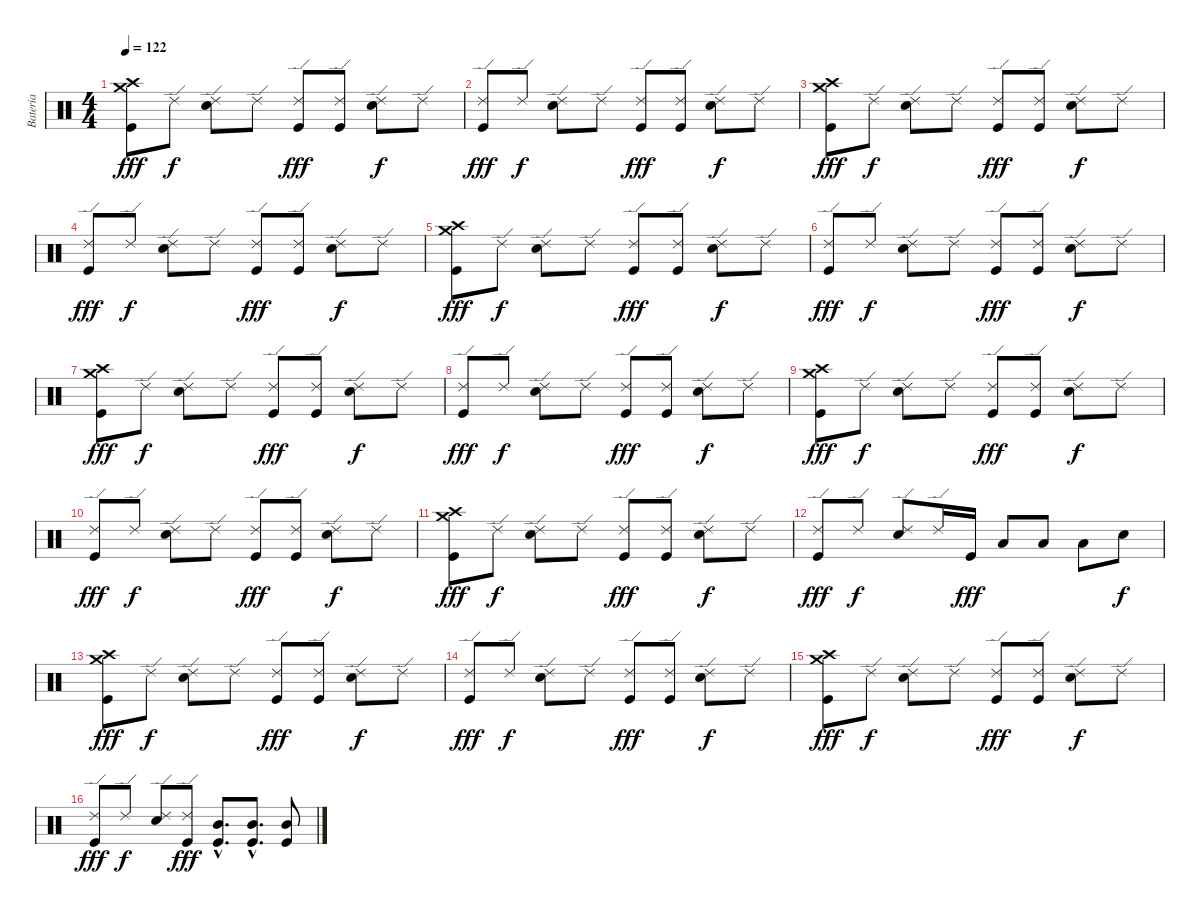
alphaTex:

\track ("Bateria" "Bateria") {instrument percussion}
\staff {score}
\articulation defaults
\ts (4 4)
\tempo 122
\clef neutral
\ks c
("Crash high (hit)" "Crash medium (hit)" "Kick (hit)").8{dy fff} "Ride (edge) 2".8{dy f} ("Ride (edge) 2" "Snare (hit) 2").8 "Ride (edge) 2".8 ("Ride (edge) 2" "Kick (hit)").8{dy fff} ("Ride (edge) 2" "Kick (hit)").8 ("Ride (edge) 2" "Snare (hit) 2").8{dy f} "Ride (edge) 2".8 |
("Ride (edge) 2" "Kick (hit)").8{dy fff} "Ride (edge) 2".8{dy f} ("Ride (edge) 2" "Snare (hit) 2").8 "Ride (edge) 2".8 ("Ride (edge) 2" "Kick (hit)").8{dy fff} ("Ride (edge) 2" "Kick (hit)").8 ("Ride (edge) 2" "Snare (hit) 2").8{dy f} "Ride (edge) 2".8 |
("Crash high (hit)" "Crash medium (hit)" "Kick (hit)").8{dy fff} "Ride (edge) 2".8{dy f} ("Ride (edge) 2" "Snare (hit) 2").8 "Ride (edge) 2".8 ("Ride (edge) 2" "Kick (hit)").8{dy fff} ("Ride (edge) 2" "Kick (hit)").8 ("Ride (edge) 2" "Snare (hit) 2").8{dy f} "Ride (edge) 2".8 |
("Ride (edge) 2" "Kick (hit)").8{dy fff} "Ride (edge) 2".8{dy f} ("Ride (edge) 2" "Snare (hit) 2").8 "Ride (edge) 2".8 ("Ride (edge) 2" "Kick (hit)").8{dy fff} ("Ride (edge) 2" "Kick (hit)").8 ("Ride (edge) 2" "Snare (hit) 2").8{dy f} "Ride (edge) 2".8 |
("Crash high (hit)" "Crash medium (hit)" "Kick (hit)").8{dy fff} "Ride (edge) 2".8{dy f} ("Ride (edge) 2" "Snare (hit) 2").8 "Ride (edge) 2".8 ("Ride (edge) 2" "Kick (hit)").8{dy fff} ("Ride (edge) 2" "Kick (hit)").8 ("Ride (edge) 2" "Snare (hit) 2").8{dy f} "Ride (edge) 2".8 |
("Ride (edge) 2" "Kick (hit)").8{dy fff} "Ride (edge) 2".8{dy f} ("Ride (edge) 2" "Snare (hit) 2").8 "Ride (edge) 2".8 ("Ride (edge) 2" "Kick (hit)").8{dy fff} ("Ride (edge) 2" "Kick (hit)").8 ("Ride (edge) 2" "Snare (hit) 2").8{dy f} "Ride (edge) 2".8 |
("Crash high (hit)" "Crash medium (hit)" "Kick (hit)").8{dy fff} "Ride (edge) 2".8{dy f} ("Ride (edge) 2" "Snare (hit) 2").8 "Ride (edge) 2".8 ("Ride (edge) 2" "Kick (hit)").8{dy fff} ("Ride (edge) 2" "Kick (hit)").8 ("Ride (edge) 2" "Snare (hit) 2").8{dy f} "Ride (edge) 2".8 |
("Ride (edge) 2" "Kick (hit)").8{dy fff} "Ride (edge) 2".8{dy f} ("Ride (edge) 2" "Snare (hit) 2").8 "Ride (edge) 2".8 ("Ride (edge) 2" "Kick (hit)").8{dy fff} ("Ride (edge) 2" "Kick (hit)").8 ("Ride (edge) 2" "Snare (hit) 2").8{dy f} "Ride (edge) 2".8 |
("Crash high (hit)" "Crash medium (hit)" "Kick (hit)").8{dy fff} "Ride (edge) 2".8{dy f} ("Ride (edge) 2" "Snare (hit) 2").8 "Ride (edge) 2".8 ("Ride (edge) 2" "Kick (hit)").8{dy fff} ("Ride (edge) 2" "Kick (hit)").8 ("Ride (edge) 2" "Snare (hit) 2").8{dy f} "Ride (edge) 2".8 |
("Ride (edge) 2" "Kick (hit)").8{dy fff} "Ride (edge) 2".8{dy f} ("Ride (edge) 2" "Snare (hit) 2").8 "Ride (edge) 2".8 ("Ride (edge) 2" "Kick (hit)").8{dy fff} ("Ride (edge) 2" "Kick (hit)").8 ("Ride (edge) 2" "Snare (hit) 2").8{dy f} "Ride (edge) 2".8 |
("Crash high (hit)" "Crash medium (hit)" "Kick (hit)").8{dy fff} "Ride (edge) 2".8{dy f} ("Ride (edge) 2" "Snare (hit) 2").8 "Ride (edge) 2".8 ("Ride (edge) 2" "Kick (hit)").8{dy fff} ("Ride (edge) 2" "Kick (hit)").8 ("Ride (edge) 2" "Snare (hit) 2").8{dy f} "Ride (edge) 2".8 |
("Ride (edge) 2" "Kick (hit)").8{dy fff} "Ride (edge) 2".8{dy f} ("Ride (edge) 2" "Snare (hit) 2").8 "Ride (edge) 2".16 "Kick (hit)".16{dy fff} "Low Tom (hit)".8 "Low Tom (hit)".8 "Low Tom (hit)".8 "Snare (hit) 2".8{dy f} |
("Crash high (hit)" "Crash medium (hit)" "Kick (hit)").8{dy fff} "Ride (edge) 2".8{dy f} ("Ride (edge) 2" "Snare (hit) 2").8 "Ride (edge) 2".8 ("Ride (edge) 2" "Kick (hit)").8{dy fff} ("Ride (edge) 2" "Kick (hit)").8 ("Ride (edge) 2" "Snare (hit) 2").8{dy f} "Ride (edge) 2".8 |
("Ride (edge) 2" "Kick (hit)").8{dy fff} "Ride (edge) 2".8{dy f} ("Ride (edge) 2" "Snare (hit) 2").8 "Ride (edge) 2".8 ("Ride (edge) 2" "Kick (hit)").8{dy fff} ("Ride (edge) 2" "Kick (hit)").8 ("Ride (edge) 2" "Snare (hit) 2").8{dy f} "Ride (edge) 2".8 |
("Crash high (hit)" "Crash medium (hit)" "Kick (hit)").8{dy fff} "Ride (edge) 2".8{dy f} ("Ride (edge) 2" "Snare (hit) 2").8 "Ride (edge) 2".8 ("Ride (edge) 2" "Kick (hit)").8{dy fff} ("Ride (edge) 2" "Kick (hit)").8 ("Ride (edge) 2" "Snare (hit) 2").8{dy f} "Ride (edge) 2".8 |
("Ride (edge) 2" "Kick (hit)").8{dy fff} "Ride (edge) 2".8{dy f} ("Ride (edge) 2" "Snare (hit) 2").8 ("Ride (edge) 2" "Kick (hit)").8{dy fff} ("Mid Tom (hit)"{hac} "Kick (hit)"{hac}).8{d} ("Mid Tom (hit)"{hac} "Kick (hit)"{hac}).8{d} ("Mid Tom (hit)" "Kick (hit)").8
